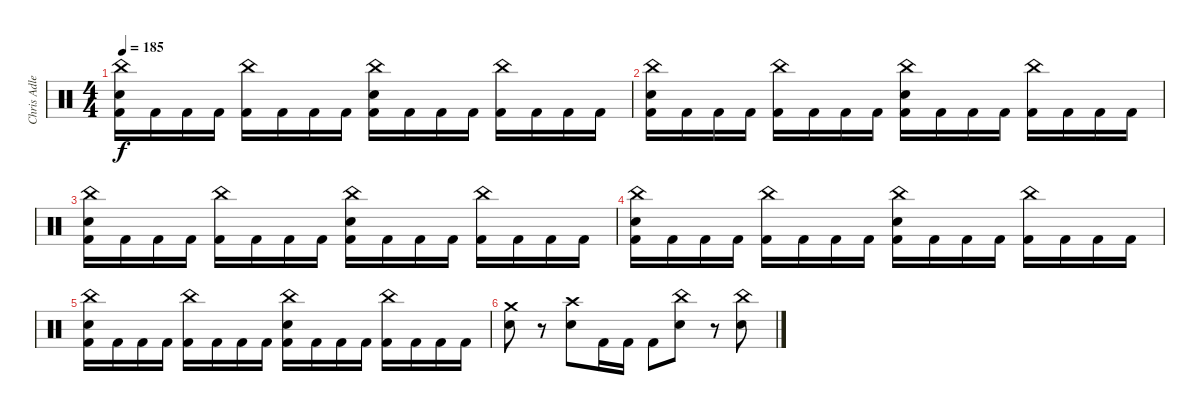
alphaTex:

\track ("Chris Adler" "Chris Adle") {instrument percussion}
\staff {score}
\articulation defaults
\ts (4 4)
\tempo 185
\clef neutral
\ks c
("China (hit)" "Electric Snare (hit)" "Kick (hit) 2").16{dy f} "Kick (hit) 2".16 "Kick (hit) 2".16 "Kick (hit) 2".16 ("China (hit)" "Kick (hit) 2").16 "Kick (hit) 2".16 "Kick (hit) 2".16 "Kick (hit) 2".16 ("China (hit)" "Electric Snare (hit)" "Kick (hit) 2").16 "Kick (hit) 2".16 "Kick (hit) 2".16 "Kick (hit) 2".16 ("China (hit)" "Kick (hit) 2").16 "Kick (hit) 2".16 "Kick (hit) 2".16 "Kick (hit) 2".16 |
("China (hit)" "Electric Snare (hit)" "Kick (hit) 2").16 "Kick (hit) 2".16 "Kick (hit) 2".16 "Kick (hit) 2".16 ("China (hit)" "Kick (hit) 2").16 "Kick (hit) 2".16 "Kick (hit) 2".16 "Kick (hit) 2".16 ("China (hit)" "Electric Snare (hit)" "Kick (hit) 2").16 "Kick (hit) 2".16 "Kick (hit) 2".16 "Kick (hit) 2".16 ("China (hit)" "Kick (hit) 2").16 "Kick (hit) 2".16 "Kick (hit) 2".16 "Kick (hit) 2".16 |
("China (hit)" "Electric Snare (hit)" "Kick (hit) 2").16 "Kick (hit) 2".16 "Kick (hit) 2".16 "Kick (hit) 2".16 ("China (hit)" "Kick (hit) 2").16 "Kick (hit) 2".16 "Kick (hit) 2".16 "Kick (hit) 2".16 ("China (hit)" "Electric Snare (hit)" "Kick (hit) 2").16 "Kick (hit) 2".16 "Kick (hit) 2".16 "Kick (hit) 2".16 ("China (hit)" "Kick (hit) 2").16 "Kick (hit) 2".16 "Kick (hit) 2".16 "Kick (hit) 2".16 |
("China (hit)" "Electric Snare (hit)" "Kick (hit) 2").16 "Kick (hit) 2".16 "Kick (hit) 2".16 "Kick (hit) 2".16 ("China (hit)" "Kick (hit) 2").16 "Kick (hit) 2".16 "Kick (hit) 2".16 "Kick (hit) 2".16 ("China (hit)" "Electric Snare (hit)" "Kick (hit) 2").16 "Kick (hit) 2".16 "Kick (hit) 2".16 "Kick (hit) 2".16 ("China (hit)" "Kick (hit) 2").16 "Kick (hit) 2".16 "Kick (hit) 2".16 "Kick (hit) 2".16 |
("China (hit)" "Electric Snare (hit)" "Kick (hit) 2").16 "Kick (hit) 2".16 "Kick (hit) 2".16 "Kick (hit) 2".16 ("China (hit)" "Kick (hit) 2").16 "Kick (hit) 2".16 "Kick (hit) 2".16 "Kick (hit) 2".16 ("China (hit)" "Electric Snare (hit)" "Kick (hit) 2").16 "Kick (hit) 2".16 "Kick (hit) 2".16 "Kick (hit) 2".16 ("China (hit)" "Kick (hit) 2").16 "Kick (hit) 2".16 "Kick (hit) 2".16 "Kick (hit) 2".16 |
("Crash medium (hit)" "Electric Snare (hit)").8 r.8 ("Crash high (hit)" "Electric Snare (hit)").8 "Kick (hit) 2".16 "Kick (hit) 2".16 "Kick (hit) 2".8 ("China (hit)" "Electric Snare (hit)").8 r.8 ("China (hit)" "Electric Snare (hit)").8
